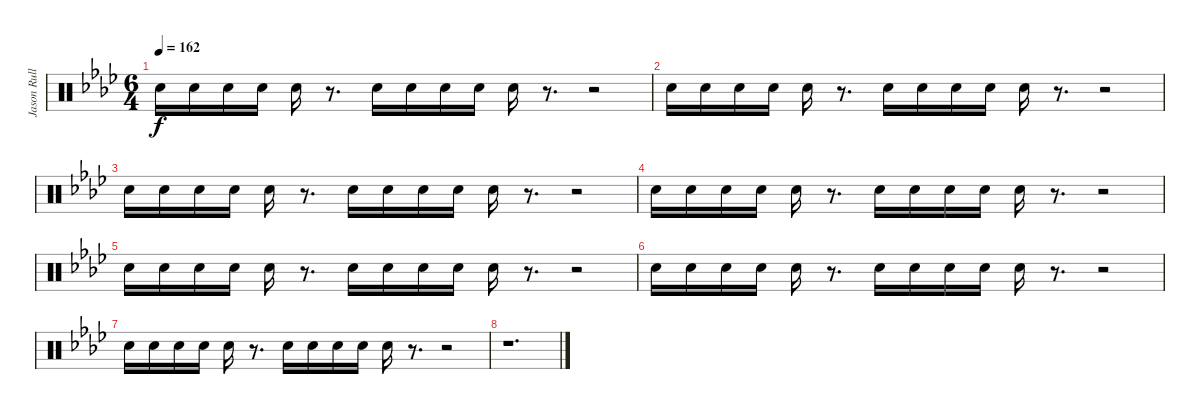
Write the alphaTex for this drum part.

\track ("Jason Rullo" "Jason Rull") {instrument percussion}
\staff {score}
\articulation defaults
\ts (6 4)
\tempo 162
\clef neutral
\ks fminor "Electric Snare (hit)".16{dy f} "Electric Snare (hit)".16 "Electric Snare (hit)".16 "Electric Snare (hit)".16 "Electric Snare (hit)".16
r.8{d} "Electric Snare (hit)".16 "Electric Snare (hit)".16 "Electric Snare (hit)".16 "Electric Snare (hit)".16 "Electric Snare (hit)".16 r.8{d} r.2 |
"Electric Snare (hit)".16 "Electric Snare (hit)".16 "Electric Snare (hit)".16 "Electric Snare (hit)".16 "Electric Snare (hit)".16 r.8{d} "Electric Snare (hit)".16 "Electric Snare (hit)".16 "Electric Snare (hit)".16 "Electric Snare (hit)".16 "Electric Snare (hit)".16 r.8{d} r.2 |
"Electric Snare (hit)".16 "Electric Snare (hit)".16 "Electric Snare (hit)".16 "Electric Snare (hit)".16 "Electric Snare (hit)".16 r.8{d} "Electric Snare (hit)".16 "Electric Snare (hit)".16 "Electric Snare (hit)".16 "Electric Snare (hit)".16 "Electric Snare (hit)".16 r.8{d} r.2 |
"Electric Snare (hit)".16 "Electric Snare (hit)".16 "Electric Snare (hit)".16 "Electric Snare (hit)".16 "Electric Snare (hit)".16 r.8{d} "Electric Snare (hit)".16 "Electric Snare (hit)".16 "Electric Snare (hit)".16 "Electric Snare (hit)".16 "Electric Snare (hit)".16 r.8{d} r.2 |
"Electric Snare (hit)".16{volume 16} "Electric Snare (hit)".16{volume 16} "Electric Snare (hit)".16{volume 16} "Electric Snare (hit)".16{volume 15} "Electric Snare (hit)".16{volume 15} r.8{d} "Electric Snare (hit)".16{volume 14} "Electric Snare (hit)".16{volume 14} "Electric Snare (hit)".16{volume 14} "Electric Snare (hit)".16{volume 14} "Electric Snare (hit)".16{volume 13} r.8{d} r.2 |
"Electric Snare (hit)".16{volume 11} "Electric Snare (hit)".16{volume 10} "Electric Snare (hit)".16{volume 10} "Electric Snare (hit)".16{volume 10} "Electric Snare (hit)".16{volume 10} r.8{d} "Electric Snare (hit)".16{volume 9} "Electric Snare (hit)".16{volume 9} "Electric Snare (hit)".16{volume 8} "Electric Snare (hit)".16{volume 8} "Electric Snare (hit)".16{volume 8} r.8{d} r.2 |
"Electric Snare (hit)".16{volume 5} "Electric Snare (hit)".16{volume 5} "Electric Snare (hit)".16{volume 5} "Electric Snare (hit)".16{volume 5} "Electric Snare (hit)".16{volume 4} r.8{d} "Electric Snare (hit)".16{volume 4} "Electric Snare (hit)".16{volume 3} "Electric Snare (hit)".16{volume 3} "Electric Snare (hit)".16{volume 3} "Electric Snare (hit)".16{volume 3} r.8{d} r.2 |
r.1{d}
